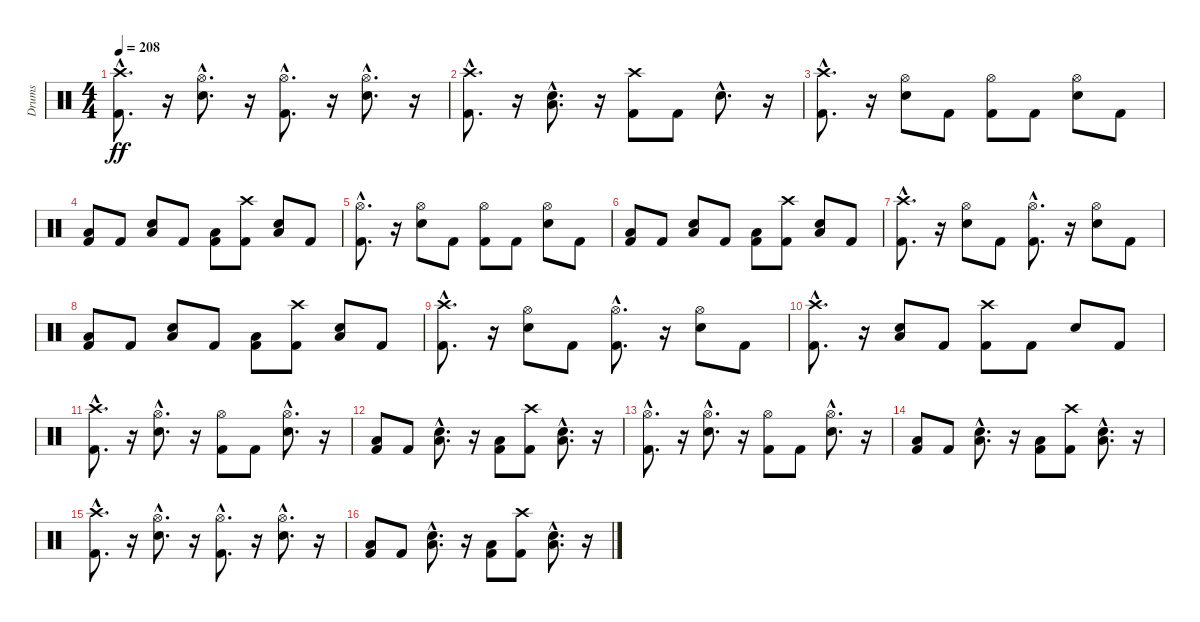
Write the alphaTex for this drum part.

\track ("Drums" "Drums") {instrument percussion}
\staff {score}
\articulation defaults
\ts (4 4)
\tempo 208
\clef neutral
\ks c
("Kick (hit) 2"{hac} "Crash high (hit)"{hac}).8{d dy ff} r.16 ("Snare (hit) 2"{hac} "Hi-Hat (open)"{hac}).8{d} r.16 ("Hi-Hat (open)"{hac} "Kick (hit) 2"{hac}).8{d} r.16 ("Hi-Hat (open)"{hac} "Snare (hit) 2"{hac}).8{d} r.16 |
("Kick (hit) 2"{hac} "Crash high (hit)"{hac}).8{d} r.16 ("Snare (hit) 2"{hac} "Low Tom (hit)"{hac}).8{d} r.16 ("Kick (hit) 2" "Crash high (hit)").8 "Kick (hit) 2".8 "Snare (hit) 2"{hac}.8{d} r.16 |
("Kick (hit) 2"{hac} "Crash high (hit)"{hac}).8{d} r.16 ("Snare (hit) 2" "Hi-Hat (open)").8 "Kick (hit) 2".8 ("Kick (hit) 2" "Hi-Hat (open)").8 "Kick (hit) 2".8 ("Snare (hit) 2" "Hi-Hat (open)").8 "Kick (hit) 2".8 |
("Kick (hit) 2" "Low Tom (hit)").8 "Kick (hit) 2".8 ("Snare (hit) 2" "Low Tom (hit)").8 "Kick (hit) 2".8 ("Kick (hit) 2" "Low Tom (hit)").8 ("Kick (hit) 2" "Crash high (hit)").8 ("Snare (hit) 2" "Low Tom (hit)").8 "Kick (hit) 2".8 |
("Kick (hit) 2"{hac} "Hi-Hat (open)"{hac}).8{d} r.16 ("Snare (hit) 2" "Hi-Hat (open)").8 "Kick (hit) 2".8 ("Kick (hit) 2" "Hi-Hat (open)").8 "Kick (hit) 2".8 ("Snare (hit) 2" "Hi-Hat (open)").8 "Kick (hit) 2".8 |
("Kick (hit) 2" "Low Tom (hit)").8 "Kick (hit) 2".8 ("Snare (hit) 2" "Low Tom (hit)").8 "Kick (hit) 2".8 ("Kick (hit) 2" "Low Tom (hit)").8 ("Kick (hit) 2" "Crash high (hit)").8 ("Snare (hit) 2" "Low Tom (hit)").8 "Kick (hit) 2".8 |
("Kick (hit) 2"{hac} "Crash high (hit)"{hac}).8{d} r.16 ("Snare (hit) 2" "Hi-Hat (open)").8 "Kick (hit) 2".8 ("Kick (hit) 2"{hac} "Hi-Hat (open)"{hac}).8{d} r.16 ("Snare (hit) 2" "Hi-Hat (open)").8 "Kick (hit) 2".8 |
("Kick (hit) 2" "Low Tom (hit)").8 "Kick (hit) 2".8 ("Snare (hit) 2" "Low Tom (hit)").8 "Kick (hit) 2".8 ("Kick (hit) 2" "Low Tom (hit)").8 ("Kick (hit) 2" "Crash high (hit)").8 ("Snare (hit) 2" "Low Tom (hit)").8 "Kick (hit) 2".8 |
("Kick (hit) 2"{hac} "Crash high (hit)"{hac}).8{d} r.16 ("Snare (hit) 2" "Hi-Hat (open)").8 "Kick (hit) 2".8 ("Kick (hit) 2"{hac} "Hi-Hat (open)"{hac}).8{d} r.16 ("Snare (hit) 2" "Hi-Hat (open)").8 "Kick (hit) 2".8 |
("Kick (hit) 2"{hac} "Crash high (hit)"{hac}).8{d} r.16 ("Snare (hit) 2" "Low Tom (hit)").8 "Kick (hit) 2".8 ("Kick (hit) 2" "Crash high (hit)").8 "Kick (hit) 2".8 "Snare (hit) 2".8 "Kick (hit) 2".8 |
("Kick (hit) 2"{hac} "Crash high (hit)"{hac}).8{d} r.16 ("Snare (hit) 2"{hac} "Hi-Hat (open)"{hac}).8{d} r.16 ("Kick (hit) 2" "Hi-Hat (open)").8 "Kick (hit) 2".8 ("Snare (hit) 2"{hac} "Hi-Hat (open)"{hac}).8{d} r.16 |
("Kick (hit) 2" "Low Tom (hit)").8 "Kick (hit) 2".8 ("Snare (hit) 2"{hac} "Low Tom (hit)"{hac}).8{d} r.16 ("Kick (hit) 2" "Low Tom (hit)").8 ("Kick (hit) 2" "Crash high (hit)").8 ("Snare (hit) 2"{hac} "Low Tom (hit)"{hac}).8{d} r.16 |
("Kick (hit) 2"{hac} "Hi-Hat (open)"{hac}).8{d} r.16 ("Snare (hit) 2"{hac} "Hi-Hat (open)"{hac}).8{d} r.16 ("Kick (hit) 2" "Hi-Hat (open)").8 "Kick (hit) 2".8 ("Snare (hit) 2"{hac} "Hi-Hat (open)"{hac}).8{d} r.16 |
("Kick (hit) 2" "Low Tom (hit)").8 "Kick (hit) 2".8 ("Snare (hit) 2"{hac} "Low Tom (hit)"{hac}).8{d} r.16 ("Kick (hit) 2" "Low Tom (hit)").8 ("Kick (hit) 2" "Crash high (hit)").8 ("Snare (hit) 2"{hac} "Low Tom (hit)"{hac}).8{d} r.16 |
("Kick (hit) 2"{hac} "Crash high (hit)"{hac}).8{d} r.16 ("Snare (hit) 2"{hac} "Hi-Hat (open)"{hac}).8{d} r.16 ("Kick (hit) 2"{hac} "Hi-Hat (open)"{hac}).8{d} r.16 ("Snare (hit) 2"{hac} "Hi-Hat (open)"{hac}).8{d} r.16 |
("Kick (hit) 2" "Low Tom (hit)").8 "Kick (hit) 2".8 ("Snare (hit) 2"{hac} "Low Tom (hit)"{hac}).8{d} r.16 ("Kick (hit) 2" "Low Tom (hit)").8 ("Kick (hit) 2" "Crash high (hit)").8 ("Snare (hit) 2"{hac} "Low Tom (hit)"{hac}).8{d} r.16
